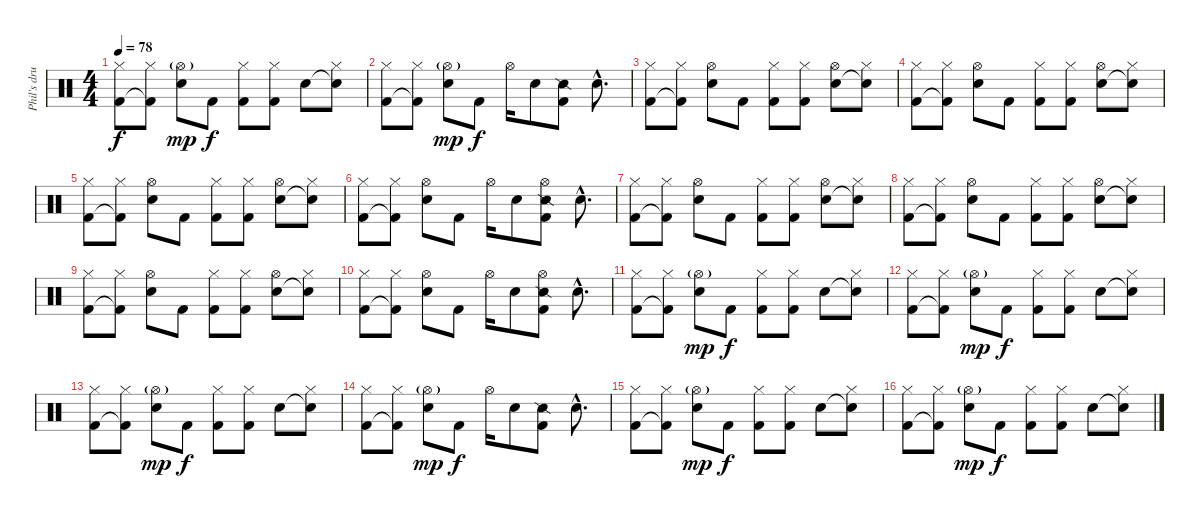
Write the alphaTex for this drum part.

\track ("Phil's drums" "Phil's dru") {instrument percussion}
\staff {score}
\articulation defaults
\ts (4 4)
\tempo 78
\clef neutral
\ks c
("Kick (hit) 2" "Hi-Hat (closed)").8{dy f} ("Kick (hit) 2"{t} "Hi-Hat (closed)").8 ("Snare (hit) 2" "Hi-Hat (open)"{g}).8{dy mp} "Kick (hit) 2".8{dy f} ("Kick (hit) 2" "Hi-Hat (closed)").8 ("Kick (hit) 2" "Hi-Hat (closed)").8 "Snare (hit) 2".8 ("Snare (hit) 2"{t} "Hi-Hat (closed)").8 |
("Kick (hit) 2" "Hi-Hat (closed)").8 ("Kick (hit) 2"{t} "Hi-Hat (closed)").8 ("Snare (hit) 2" "Hi-Hat (open)"{g}).8{dy mp} "Kick (hit) 2".8{dy f} "Hi-Hat (open)".16 "Snare (hit) 2".8 ("Snare (side stick) 2" "Kick (hit) 2").8 "Snare (hit) 2"{hac}.8{d} |
("Kick (hit) 2" "Hi-Hat (closed)").8 ("Kick (hit) 2"{t} "Hi-Hat (closed)").8 ("Snare (hit) 2" "Hi-Hat (open)").8 "Kick (hit) 2".8 ("Kick (hit) 2" "Hi-Hat (closed)").8 ("Kick (hit) 2" "Hi-Hat (closed)").8 ("Snare (hit) 2" "Hi-Hat (open)").8 ("Snare (hit) 2"{t} "Hi-Hat (closed)").8 |
("Kick (hit) 2" "Hi-Hat (closed)").8 ("Kick (hit) 2"{t} "Hi-Hat (closed)").8 ("Snare (hit) 2" "Hi-Hat (open)").8 "Kick (hit) 2".8 ("Kick (hit) 2" "Hi-Hat (closed)").8 ("Kick (hit) 2" "Hi-Hat (closed)").8 ("Snare (hit) 2" "Hi-Hat (open)").8 ("Snare (hit) 2"{t} "Hi-Hat (closed)").8 |
("Kick (hit) 2" "Hi-Hat (closed)").8 ("Kick (hit) 2"{t} "Hi-Hat (closed)").8 ("Snare (hit) 2" "Hi-Hat (open)").8 "Kick (hit) 2".8 ("Kick (hit) 2" "Hi-Hat (closed)").8 ("Kick (hit) 2" "Hi-Hat (closed)").8 ("Snare (hit) 2" "Hi-Hat (open)").8 ("Snare (hit) 2"{t} "Hi-Hat (closed)").8 |
("Kick (hit) 2" "Hi-Hat (closed)").8 ("Kick (hit) 2"{t} "Hi-Hat (closed)").8 ("Snare (hit) 2" "Hi-Hat (open)").8 "Kick (hit) 2".8 "Hi-Hat (open)".16 "Snare (hit) 2".8 ("Snare (side stick) 2" "Kick (hit) 2" "Hi-Hat (open)").8 "Snare (hit) 2"{hac}.8{d} |
("Kick (hit) 2" "Hi-Hat (closed)").8 ("Kick (hit) 2"{t} "Hi-Hat (closed)").8 ("Snare (hit) 2" "Hi-Hat (open)").8 "Kick (hit) 2".8 ("Kick (hit) 2" "Hi-Hat (closed)").8 ("Kick (hit) 2" "Hi-Hat (closed)").8 ("Snare (hit) 2" "Hi-Hat (open)").8 ("Snare (hit) 2"{t} "Hi-Hat (closed)").8 |
("Kick (hit) 2" "Hi-Hat (closed)").8 ("Kick (hit) 2"{t} "Hi-Hat (closed)").8 ("Snare (hit) 2" "Hi-Hat (open)").8 "Kick (hit) 2".8 ("Kick (hit) 2" "Hi-Hat (closed)").8 ("Kick (hit) 2" "Hi-Hat (closed)").8 ("Snare (hit) 2" "Hi-Hat (open)").8 ("Snare (hit) 2"{t} "Hi-Hat (closed)").8 |
("Kick (hit) 2" "Hi-Hat (closed)").8 ("Kick (hit) 2"{t} "Hi-Hat (closed)").8 ("Snare (hit) 2" "Hi-Hat (open)").8 "Kick (hit) 2".8 ("Kick (hit) 2" "Hi-Hat (closed)").8 ("Kick (hit) 2" "Hi-Hat (closed)").8 ("Snare (hit) 2" "Hi-Hat (open)").8 ("Snare (hit) 2"{t} "Hi-Hat (closed)").8 |
("Kick (hit) 2" "Hi-Hat (closed)").8 ("Kick (hit) 2"{t} "Hi-Hat (closed)").8 ("Snare (hit) 2" "Hi-Hat (open)").8 "Kick (hit) 2".8 "Hi-Hat (open)".16 "Snare (hit) 2".8 ("Snare (side stick) 2" "Kick (hit) 2" "Hi-Hat (open)").8 "Snare (hit) 2"{hac}.8{d} |
("Kick (hit) 2" "Hi-Hat (closed)").8 ("Kick (hit) 2"{t} "Hi-Hat (closed)").8 ("Snare (hit) 2" "Hi-Hat (open)"{g}).8{dy mp} "Kick (hit) 2".8{dy f} ("Kick (hit) 2" "Hi-Hat (closed)").8 ("Kick (hit) 2" "Hi-Hat (closed)").8 "Snare (hit) 2".8 ("Snare (hit) 2"{t} "Hi-Hat (closed)").8 |
("Kick (hit) 2" "Hi-Hat (closed)").8 ("Kick (hit) 2"{t} "Hi-Hat (closed)").8 ("Snare (hit) 2" "Hi-Hat (open)"{g}).8{dy mp} "Kick (hit) 2".8{dy f} ("Kick (hit) 2" "Hi-Hat (closed)").8 ("Kick (hit) 2" "Hi-Hat (closed)").8 "Snare (hit) 2".8 ("Snare (hit) 2"{t} "Hi-Hat (closed)").8 |
("Kick (hit) 2" "Hi-Hat (closed)").8 ("Kick (hit) 2"{t} "Hi-Hat (closed)").8 ("Snare (hit) 2" "Hi-Hat (open)"{g}).8{dy mp} "Kick (hit) 2".8{dy f} ("Kick (hit) 2" "Hi-Hat (closed)").8 ("Kick (hit) 2" "Hi-Hat (closed)").8 "Snare (hit) 2".8 ("Snare (hit) 2"{t} "Hi-Hat (closed)").8 |
("Kick (hit) 2" "Hi-Hat (closed)").8 ("Kick (hit) 2"{t} "Hi-Hat (closed)").8 ("Snare (hit) 2" "Hi-Hat (open)"{g}).8{dy mp} "Kick (hit) 2".8{dy f} "Hi-Hat (open)".16 "Snare (hit) 2".8 ("Snare (side stick) 2" "Kick (hit) 2").8 "Snare (hit) 2"{hac}.8{d} |
("Kick (hit) 2" "Hi-Hat (closed)").8 ("Kick (hit) 2"{t} "Hi-Hat (closed)").8 ("Snare (hit) 2" "Hi-Hat (open)"{g}).8{dy mp} "Kick (hit) 2".8{dy f} ("Kick (hit) 2" "Hi-Hat (closed)").8 ("Kick (hit) 2" "Hi-Hat (closed)").8 "Snare (hit) 2".8 ("Snare (hit) 2"{t} "Hi-Hat (closed)").8 |
("Kick (hit) 2" "Hi-Hat (closed)").8 ("Kick (hit) 2"{t} "Hi-Hat (closed)").8 ("Snare (hit) 2" "Hi-Hat (open)"{g}).8{dy mp} "Kick (hit) 2".8{dy f} ("Kick (hit) 2" "Hi-Hat (closed)").8 ("Kick (hit) 2" "Hi-Hat (closed)").8 "Snare (hit) 2".8 ("Snare (hit) 2"{t} "Hi-Hat (closed)").8
